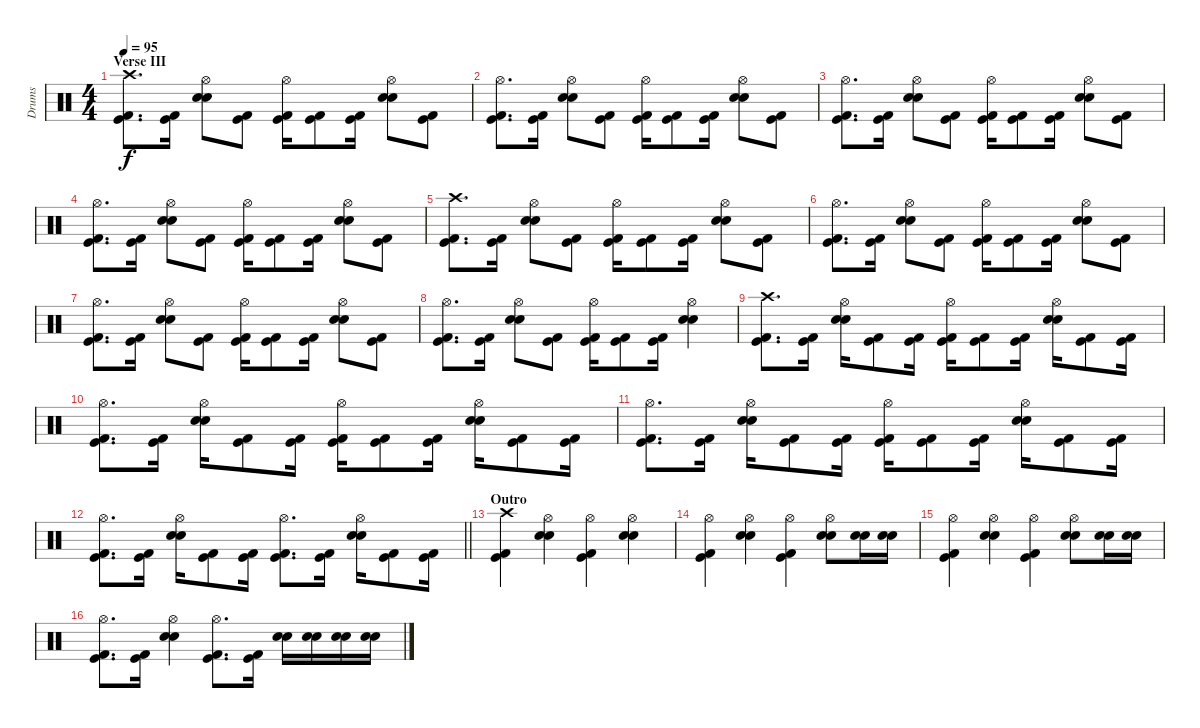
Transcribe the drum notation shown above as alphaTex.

\track ("Drums" "Drums") {instrument percussion}
\staff {score}
\articulation defaults
\ts (4 4)
\section ("" "Verse III")
\tempo 95
\clef neutral
\ks c
("Crash high (hit)" "Kick (hit)" "Kick (hit) 2").8{d dy f} ("Kick (hit)" "Kick (hit) 2").16 ("Hi-Hat (open)" "Snare (hit) 2" "Electric Snare (hit)").8 ("Kick (hit)" "Kick (hit) 2").8 ("Hi-Hat (open)" "Kick (hit)" "Kick (hit) 2").16 ("Kick (hit)" "Kick (hit) 2").8 ("Kick (hit)" "Kick (hit) 2").16 ("Hi-Hat (open)" "Snare (hit) 2" "Electric Snare (hit)").8 ("Kick (hit)" "Kick (hit) 2").8 |
("Hi-Hat (open)" "Kick (hit)" "Kick (hit) 2").8{d} ("Kick (hit)" "Kick (hit) 2").16 ("Hi-Hat (open)" "Snare (hit) 2" "Electric Snare (hit)").8 ("Kick (hit)" "Kick (hit) 2").8 ("Hi-Hat (open)" "Kick (hit)" "Kick (hit) 2").16 ("Kick (hit)" "Kick (hit) 2").8 ("Kick (hit)" "Kick (hit) 2").16 ("Hi-Hat (open)" "Snare (hit) 2" "Electric Snare (hit)").8 ("Kick (hit)" "Kick (hit) 2").8 |
("Hi-Hat (open)" "Kick (hit)" "Kick (hit) 2").8{d} ("Kick (hit)" "Kick (hit) 2").16 ("Hi-Hat (open)" "Snare (hit) 2" "Electric Snare (hit)").8 ("Kick (hit)" "Kick (hit) 2").8 ("Hi-Hat (open)" "Kick (hit)" "Kick (hit) 2").16 ("Kick (hit)" "Kick (hit) 2").8 ("Kick (hit)" "Kick (hit) 2").16 ("Hi-Hat (open)" "Snare (hit) 2" "Electric Snare (hit)").8 ("Kick (hit)" "Kick (hit) 2").8 |
("Hi-Hat (open)" "Kick (hit)" "Kick (hit) 2").8{d} ("Kick (hit)" "Kick (hit) 2").16 ("Hi-Hat (open)" "Snare (hit) 2" "Electric Snare (hit)").8 ("Kick (hit)" "Kick (hit) 2").8 ("Hi-Hat (open)" "Kick (hit)" "Kick (hit) 2").16 ("Kick (hit)" "Kick (hit) 2").8 ("Kick (hit)" "Kick (hit) 2").16 ("Hi-Hat (open)" "Snare (hit) 2" "Electric Snare (hit)").8 ("Kick (hit)" "Kick (hit) 2").8 |
("Crash high (hit)" "Kick (hit)" "Kick (hit) 2").8{d} ("Kick (hit)" "Kick (hit) 2").16 ("Hi-Hat (open)" "Snare (hit) 2" "Electric Snare (hit)").8 ("Kick (hit)" "Kick (hit) 2").8 ("Hi-Hat (open)" "Kick (hit)" "Kick (hit) 2").16 ("Kick (hit)" "Kick (hit) 2").8 ("Kick (hit)" "Kick (hit) 2").16 ("Hi-Hat (open)" "Snare (hit) 2" "Electric Snare (hit)").8 ("Kick (hit)" "Kick (hit) 2").8 |
("Hi-Hat (open)" "Kick (hit)" "Kick (hit) 2").8{d} ("Kick (hit)" "Kick (hit) 2").16 ("Hi-Hat (open)" "Snare (hit) 2" "Electric Snare (hit)").8 ("Kick (hit)" "Kick (hit) 2").8 ("Hi-Hat (open)" "Kick (hit)" "Kick (hit) 2").16 ("Kick (hit)" "Kick (hit) 2").8 ("Kick (hit)" "Kick (hit) 2").16 ("Hi-Hat (open)" "Snare (hit) 2" "Electric Snare (hit)").8 ("Kick (hit)" "Kick (hit) 2").8 |
("Hi-Hat (open)" "Kick (hit)" "Kick (hit) 2").8{d} ("Kick (hit)" "Kick (hit) 2").16 ("Hi-Hat (open)" "Snare (hit) 2" "Electric Snare (hit)").8 ("Kick (hit)" "Kick (hit) 2").8 ("Hi-Hat (open)" "Kick (hit)" "Kick (hit) 2").16 ("Kick (hit)" "Kick (hit) 2").8 ("Kick (hit)" "Kick (hit) 2").16 ("Hi-Hat (open)" "Snare (hit) 2" "Electric Snare (hit)").8 ("Kick (hit)" "Kick (hit) 2").8 |
("Hi-Hat (open)" "Kick (hit)" "Kick (hit) 2").8{d} ("Kick (hit)" "Kick (hit) 2").16 ("Hi-Hat (open)" "Snare (hit) 2" "Electric Snare (hit)").8 ("Kick (hit)" "Kick (hit) 2").8 ("Hi-Hat (open)" "Kick (hit)" "Kick (hit) 2").16 ("Kick (hit)" "Kick (hit) 2").8 ("Kick (hit)" "Kick (hit) 2").16 ("Hi-Hat (open)" "Snare (hit) 2" "Electric Snare (hit)").4 |
("Crash high (hit)" "Kick (hit)" "Kick (hit) 2").8{d} ("Kick (hit)" "Kick (hit) 2").16 ("Hi-Hat (open)" "Snare (hit) 2" "Electric Snare (hit)").16 ("Kick (hit)" "Kick (hit) 2").8 ("Kick (hit)" "Kick (hit) 2").16 ("Hi-Hat (open)" "Kick (hit)" "Kick (hit) 2").16 ("Kick (hit)" "Kick (hit) 2").8 ("Kick (hit)" "Kick (hit) 2").16 ("Hi-Hat (open)" "Snare (hit) 2" "Electric Snare (hit)").16 ("Kick (hit)" "Kick (hit) 2").8 ("Kick (hit)" "Kick (hit) 2").16 |
("Hi-Hat (open)" "Kick (hit)" "Kick (hit) 2").8{d} ("Kick (hit)" "Kick (hit) 2").16 ("Hi-Hat (open)" "Snare (hit) 2" "Electric Snare (hit)").16 ("Kick (hit)" "Kick (hit) 2").8 ("Kick (hit)" "Kick (hit) 2").16 ("Hi-Hat (open)" "Kick (hit)" "Kick (hit) 2").16 ("Kick (hit)" "Kick (hit) 2").8 ("Kick (hit)" "Kick (hit) 2").16 ("Hi-Hat (open)" "Snare (hit) 2" "Electric Snare (hit)").16 ("Kick (hit)" "Kick (hit) 2").8 ("Kick (hit)" "Kick (hit) 2").16 |
("Hi-Hat (open)" "Kick (hit)" "Kick (hit) 2").8{d} ("Kick (hit)" "Kick (hit) 2").16 ("Hi-Hat (open)" "Snare (hit) 2" "Electric Snare (hit)").16 ("Kick (hit)" "Kick (hit) 2").8 ("Kick (hit)" "Kick (hit) 2").16 ("Hi-Hat (open)" "Kick (hit)" "Kick (hit) 2").16 ("Kick (hit)" "Kick (hit) 2").8 ("Kick (hit)" "Kick (hit) 2").16 ("Hi-Hat (open)" "Snare (hit) 2" "Electric Snare (hit)").16 ("Kick (hit)" "Kick (hit) 2").8 ("Kick (hit)" "Kick (hit) 2").16 |
\barLineRight lightlight
("Hi-Hat (open)" "Kick (hit)" "Kick (hit) 2").8{d} ("Kick (hit)" "Kick (hit) 2").16 ("Hi-Hat (open)" "Snare (hit) 2" "Electric Snare (hit)").16 ("Kick (hit)" "Kick (hit) 2").8 ("Kick (hit)" "Kick (hit) 2").16 ("Hi-Hat (open)" "Kick (hit)" "Kick (hit) 2").8{d} ("Kick (hit)" "Kick (hit) 2").16 ("Hi-Hat (open)" "Snare (hit) 2" "Electric Snare (hit)").16 ("Kick (hit)" "Kick (hit) 2").8 ("Kick (hit)" "Kick (hit) 2").16 |
\section ("" "Outro")
("Crash high (hit)" "Kick (hit)" "Kick (hit) 2").4 ("Hi-Hat (open)" "Snare (hit) 2" "Electric Snare (hit)").4 ("Hi-Hat (open)" "Kick (hit)" "Kick (hit) 2").4 ("Hi-Hat (open)" "Snare (hit) 2" "Electric Snare (hit)").4 |
("Hi-Hat (open)" "Kick (hit)" "Kick (hit) 2").4 ("Hi-Hat (open)" "Snare (hit) 2" "Electric Snare (hit)").4 ("Hi-Hat (open)" "Kick (hit)" "Kick (hit) 2").4 ("Hi-Hat (open)" "Snare (hit) 2" "Electric Snare (hit)").8 ("Snare (hit) 2" "Electric Snare (hit)").16 ("Snare (hit) 2" "Electric Snare (hit)").16 |
("Hi-Hat (open)" "Kick (hit)" "Kick (hit) 2").4 ("Hi-Hat (open)" "Snare (hit) 2" "Electric Snare (hit)").4 ("Hi-Hat (open)" "Kick (hit)" "Kick (hit) 2").4 ("Hi-Hat (open)" "Snare (hit) 2" "Electric Snare (hit)").8 ("Snare (hit) 2" "Electric Snare (hit)").16 ("Snare (hit) 2" "Electric Snare (hit)").16 |
("Hi-Hat (open)" "Kick (hit)" "Kick (hit) 2").8{d} ("Kick (hit)" "Kick (hit) 2").16 ("Hi-Hat (open)" "Snare (hit) 2" "Electric Snare (hit)").4 ("Hi-Hat (open)" "Kick (hit)" "Kick (hit) 2").8{d} ("Kick (hit)" "Kick (hit) 2").16 ("Snare (hit) 2" "Electric Snare (hit)").16 ("Snare (hit) 2" "Electric Snare (hit)").16 ("Snare (hit) 2" "Electric Snare (hit)").16 ("Snare (hit) 2" "Electric Snare (hit)").16
